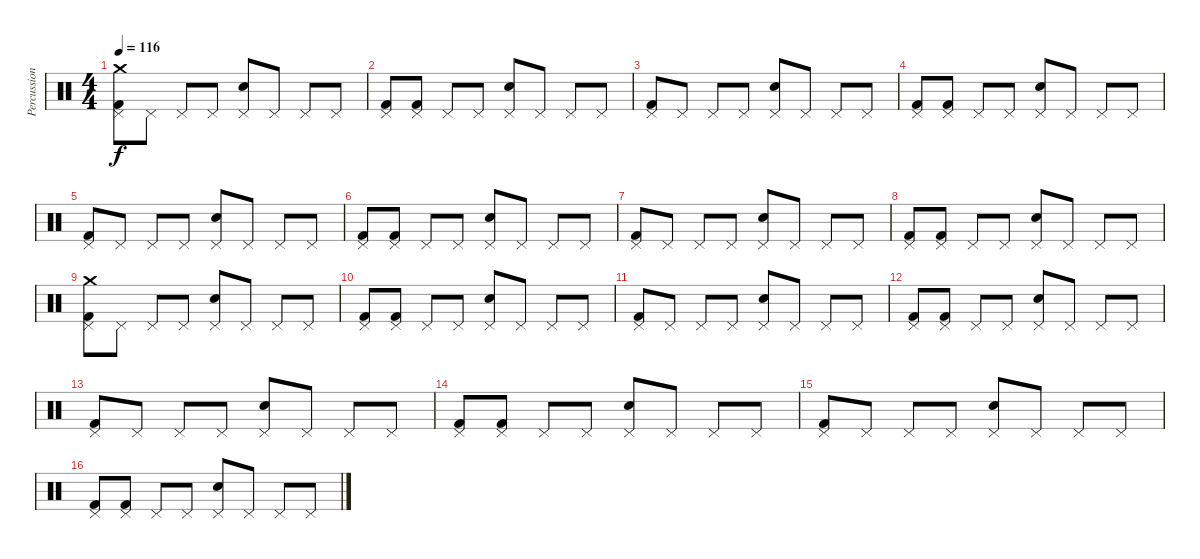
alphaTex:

\track ("Percussion" "Percussion") {instrument percussion}
\staff {score}
\articulation defaults
\ts (4 4)
\tempo 116
\clef neutral
\ks c
("Crash medium (hit)" "Pedal Hi-Hat (hit)" "Kick (hit) 2").8{dy f} "Pedal Hi-Hat (hit)".8 "Pedal Hi-Hat (hit)".8 "Pedal Hi-Hat (hit)".8 ("Pedal Hi-Hat (hit)" "Snare (hit) 2").8 "Pedal Hi-Hat (hit)".8 "Pedal Hi-Hat (hit)".8 "Pedal Hi-Hat (hit)".8 |
("Pedal Hi-Hat (hit)" "Kick (hit) 2").8 ("Pedal Hi-Hat (hit)" "Kick (hit) 2").8 "Pedal Hi-Hat (hit)".8 "Pedal Hi-Hat (hit)".8 ("Pedal Hi-Hat (hit)" "Snare (hit) 2").8 "Pedal Hi-Hat (hit)".8 "Pedal Hi-Hat (hit)".8 "Pedal Hi-Hat (hit)".8 |
("Pedal Hi-Hat (hit)" "Kick (hit) 2").8 "Pedal Hi-Hat (hit)".8 "Pedal Hi-Hat (hit)".8 "Pedal Hi-Hat (hit)".8 ("Pedal Hi-Hat (hit)" "Snare (hit) 2").8 "Pedal Hi-Hat (hit)".8 "Pedal Hi-Hat (hit)".8 "Pedal Hi-Hat (hit)".8 |
("Pedal Hi-Hat (hit)" "Kick (hit) 2").8 ("Pedal Hi-Hat (hit)" "Kick (hit) 2").8 "Pedal Hi-Hat (hit)".8 "Pedal Hi-Hat (hit)".8 ("Pedal Hi-Hat (hit)" "Snare (hit) 2").8 "Pedal Hi-Hat (hit)".8 "Pedal Hi-Hat (hit)".8 "Pedal Hi-Hat (hit)".8 |
("Pedal Hi-Hat (hit)" "Kick (hit) 2").8 "Pedal Hi-Hat (hit)".8 "Pedal Hi-Hat (hit)".8 "Pedal Hi-Hat (hit)".8 ("Pedal Hi-Hat (hit)" "Snare (hit) 2").8 "Pedal Hi-Hat (hit)".8 "Pedal Hi-Hat (hit)".8 "Pedal Hi-Hat (hit)".8 |
("Pedal Hi-Hat (hit)" "Kick (hit) 2").8 ("Pedal Hi-Hat (hit)" "Kick (hit) 2").8 "Pedal Hi-Hat (hit)".8 "Pedal Hi-Hat (hit)".8 ("Pedal Hi-Hat (hit)" "Snare (hit) 2").8 "Pedal Hi-Hat (hit)".8 "Pedal Hi-Hat (hit)".8 "Pedal Hi-Hat (hit)".8 |
("Pedal Hi-Hat (hit)" "Kick (hit) 2").8 "Pedal Hi-Hat (hit)".8 "Pedal Hi-Hat (hit)".8 "Pedal Hi-Hat (hit)".8 ("Pedal Hi-Hat (hit)" "Snare (hit) 2").8 "Pedal Hi-Hat (hit)".8 "Pedal Hi-Hat (hit)".8 "Pedal Hi-Hat (hit)".8 |
("Pedal Hi-Hat (hit)" "Kick (hit) 2").8 ("Pedal Hi-Hat (hit)" "Kick (hit) 2").8 "Pedal Hi-Hat (hit)".8 "Pedal Hi-Hat (hit)".8 ("Pedal Hi-Hat (hit)" "Snare (hit) 2").8 "Pedal Hi-Hat (hit)".8 "Pedal Hi-Hat (hit)".8 "Pedal Hi-Hat (hit)".8 |
("Crash medium (hit)" "Pedal Hi-Hat (hit)" "Kick (hit) 2").8 "Pedal Hi-Hat (hit)".8 "Pedal Hi-Hat (hit)".8 "Pedal Hi-Hat (hit)".8 ("Pedal Hi-Hat (hit)" "Snare (hit) 2").8 "Pedal Hi-Hat (hit)".8 "Pedal Hi-Hat (hit)".8 "Pedal Hi-Hat (hit)".8 |
("Pedal Hi-Hat (hit)" "Kick (hit) 2").8 ("Pedal Hi-Hat (hit)" "Kick (hit) 2").8 "Pedal Hi-Hat (hit)".8 "Pedal Hi-Hat (hit)".8 ("Pedal Hi-Hat (hit)" "Snare (hit) 2").8 "Pedal Hi-Hat (hit)".8 "Pedal Hi-Hat (hit)".8 "Pedal Hi-Hat (hit)".8 |
("Pedal Hi-Hat (hit)" "Kick (hit) 2").8 "Pedal Hi-Hat (hit)".8 "Pedal Hi-Hat (hit)".8 "Pedal Hi-Hat (hit)".8 ("Pedal Hi-Hat (hit)" "Snare (hit) 2").8 "Pedal Hi-Hat (hit)".8 "Pedal Hi-Hat (hit)".8 "Pedal Hi-Hat (hit)".8 |
("Pedal Hi-Hat (hit)" "Kick (hit) 2").8 ("Pedal Hi-Hat (hit)" "Kick (hit) 2").8 "Pedal Hi-Hat (hit)".8 "Pedal Hi-Hat (hit)".8 ("Pedal Hi-Hat (hit)" "Snare (hit) 2").8 "Pedal Hi-Hat (hit)".8 "Pedal Hi-Hat (hit)".8 "Pedal Hi-Hat (hit)".8 |
("Pedal Hi-Hat (hit)" "Kick (hit) 2").8 "Pedal Hi-Hat (hit)".8 "Pedal Hi-Hat (hit)".8 "Pedal Hi-Hat (hit)".8 ("Pedal Hi-Hat (hit)" "Snare (hit) 2").8 "Pedal Hi-Hat (hit)".8 "Pedal Hi-Hat (hit)".8 "Pedal Hi-Hat (hit)".8 |
("Pedal Hi-Hat (hit)" "Kick (hit) 2").8 ("Pedal Hi-Hat (hit)" "Kick (hit) 2").8 "Pedal Hi-Hat (hit)".8 "Pedal Hi-Hat (hit)".8 ("Pedal Hi-Hat (hit)" "Snare (hit) 2").8 "Pedal Hi-Hat (hit)".8 "Pedal Hi-Hat (hit)".8 "Pedal Hi-Hat (hit)".8 |
("Pedal Hi-Hat (hit)" "Kick (hit) 2").8 "Pedal Hi-Hat (hit)".8 "Pedal Hi-Hat (hit)".8 "Pedal Hi-Hat (hit)".8 ("Pedal Hi-Hat (hit)" "Snare (hit) 2").8 "Pedal Hi-Hat (hit)".8 "Pedal Hi-Hat (hit)".8 "Pedal Hi-Hat (hit)".8 |
("Pedal Hi-Hat (hit)" "Kick (hit) 2").8 ("Pedal Hi-Hat (hit)" "Kick (hit) 2").8 "Pedal Hi-Hat (hit)".8 "Pedal Hi-Hat (hit)".8 ("Pedal Hi-Hat (hit)" "Snare (hit) 2").8 "Pedal Hi-Hat (hit)".8 "Pedal Hi-Hat (hit)".8 "Pedal Hi-Hat (hit)".8
